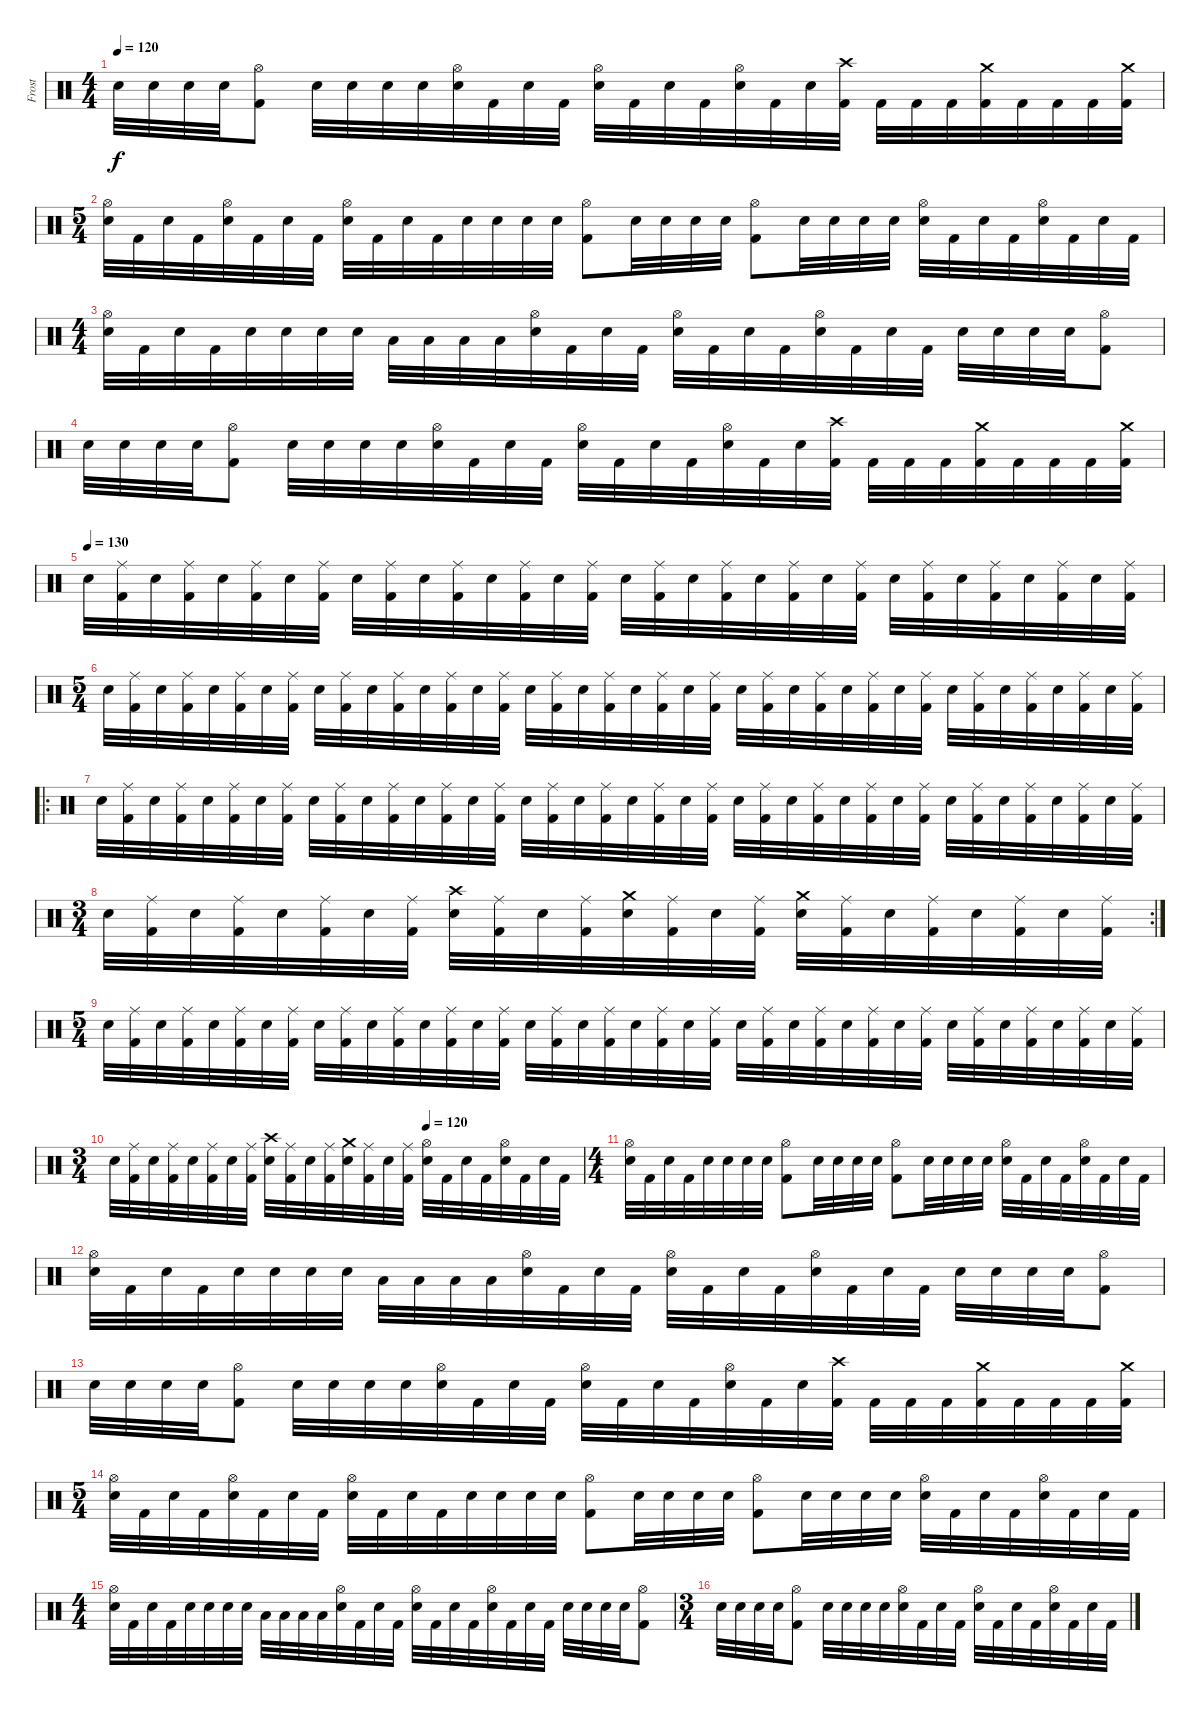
\track ("Frost" "Frost") {instrument percussion}
\staff {score}
\articulation defaults
\ts (4 4)
\tempo 120
\clef neutral
\ks c "Snare (hit) 2".32{dy f} "Snare (hit) 2".32 "Snare (hit) 2".32 "Snare (hit) 2".32
("Hi-Hat (open)" "Kick (hit) 2").8 "Snare (hit) 2".32 "Snare (hit) 2".32 "Snare (hit) 2".32 "Snare (hit) 2".32 ("Hi-Hat (open)" "Snare (hit) 2").32 "Kick (hit) 2".32 "Snare (hit) 2".32 "Kick (hit) 2".32 ("Hi-Hat (open)" "Snare (hit) 2").32 "Kick (hit) 2".32 "Snare (hit) 2".32 "Kick (hit) 2".32 ("Hi-Hat (open)" "Snare (hit) 2").32 "Kick (hit) 2".32 "Snare (hit) 2".32 ("Crash high (hit)" "Kick (hit) 2").32 "Kick (hit) 2".32 "Kick (hit) 2".32 "Kick (hit) 2".32 ("Crash medium (hit)" "Kick (hit) 2").32 "Kick (hit) 2".32 "Kick (hit) 2".32 "Kick (hit) 2".32 ("Crash medium (hit)" "Kick (hit) 2").32 |
\ts (5 4)
("Hi-Hat (open)" "Snare (hit) 2").32 "Kick (hit) 2".32 "Snare (hit) 2".32 "Kick (hit) 2".32 ("Hi-Hat (open)" "Snare (hit) 2").32 "Kick (hit) 2".32 "Snare (hit) 2".32 "Kick (hit) 2".32 ("Hi-Hat (open)" "Snare (hit) 2").32 "Kick (hit) 2".32 "Snare (hit) 2".32 "Kick (hit) 2".32 "Snare (hit) 2".32 "Snare (hit) 2".32 "Snare (hit) 2".32 "Snare (hit) 2".32 ("Hi-Hat (open)" "Kick (hit) 2").8 "Snare (hit) 2".32 "Snare (hit) 2".32 "Snare (hit) 2".32 "Snare (hit) 2".32 ("Hi-Hat (open)" "Kick (hit) 2").8 "Snare (hit) 2".32 "Snare (hit) 2".32 "Snare (hit) 2".32 "Snare (hit) 2".32 ("Hi-Hat (open)" "Snare (hit) 2").32 "Kick (hit) 2".32 "Snare (hit) 2".32 "Kick (hit) 2".32 ("Hi-Hat (open)" "Snare (hit) 2").32 "Kick (hit) 2".32 "Snare (hit) 2".32 "Kick (hit) 2".32 |
\ts (4 4)
("Hi-Hat (open)" "Snare (hit) 2").32 "Kick (hit) 2".32 "Snare (hit) 2".32 "Kick (hit) 2".32 "Snare (hit) 2".32 "Snare (hit) 2".32 "Snare (hit) 2".32 "Snare (hit) 2".32 "Low Tom (hit)".32 "Low Tom (hit)".32 "Low Tom (hit)".32 "Low Tom (hit)".32 ("Hi-Hat (open)" "Snare (hit) 2").32 "Kick (hit) 2".32 "Snare (hit) 2".32 "Kick (hit) 2".32 ("Hi-Hat (open)" "Snare (hit) 2").32 "Kick (hit) 2".32 "Snare (hit) 2".32 "Kick (hit) 2".32 ("Hi-Hat (open)" "Snare (hit) 2").32 "Kick (hit) 2".32 "Snare (hit) 2".32 "Kick (hit) 2".32 "Snare (hit) 2".32 "Snare (hit) 2".32 "Snare (hit) 2".32 "Snare (hit) 2".32 ("Hi-Hat (open)" "Kick (hit) 2").8 |
"Snare (hit) 2".32 "Snare (hit) 2".32 "Snare (hit) 2".32 "Snare (hit) 2".32 ("Hi-Hat (open)" "Kick (hit) 2").8 "Snare (hit) 2".32 "Snare (hit) 2".32 "Snare (hit) 2".32 "Snare (hit) 2".32 ("Hi-Hat (open)" "Snare (hit) 2").32 "Kick (hit) 2".32 "Snare (hit) 2".32 "Kick (hit) 2".32 ("Hi-Hat (open)" "Snare (hit) 2").32 "Kick (hit) 2".32 "Snare (hit) 2".32 "Kick (hit) 2".32 ("Hi-Hat (open)" "Snare (hit) 2").32 "Kick (hit) 2".32 "Snare (hit) 2".32 ("Crash high (hit)" "Kick (hit) 2").32 "Kick (hit) 2".32 "Kick (hit) 2".32 "Kick (hit) 2".32 ("Crash medium (hit)" "Kick (hit) 2").32 "Kick (hit) 2".32 "Kick (hit) 2".32 "Kick (hit) 2".32 ("Crash medium (hit)" "Kick (hit) 2").32 |
\tempo (130)
"Snare (hit) 2".32 ("Ride (middle)" "Kick (hit) 2").32 "Snare (hit) 2".32 ("Ride (middle)" "Kick (hit) 2").32 "Snare (hit) 2".32 ("Ride (middle)" "Kick (hit) 2").32 "Snare (hit) 2".32 ("Ride (middle)" "Kick (hit) 2").32 "Snare (hit) 2".32 ("Ride (middle)" "Kick (hit) 2").32 "Snare (hit) 2".32 ("Ride (middle)" "Kick (hit) 2").32 "Snare (hit) 2".32 ("Ride (middle)" "Kick (hit) 2").32 "Snare (hit) 2".32 ("Ride (middle)" "Kick (hit) 2").32 "Snare (hit) 2".32 ("Ride (middle)" "Kick (hit) 2").32 "Snare (hit) 2".32 ("Ride (middle)" "Kick (hit) 2").32 "Snare (hit) 2".32 ("Ride (middle)" "Kick (hit) 2").32 "Snare (hit) 2".32 ("Ride (middle)" "Kick (hit) 2").32 "Snare (hit) 2".32 ("Ride (middle)" "Kick (hit) 2").32 "Snare (hit) 2".32 ("Ride (middle)" "Kick (hit) 2").32 "Snare (hit) 2".32 ("Ride (middle)" "Kick (hit) 2").32 "Snare (hit) 2".32 ("Ride (middle)" "Kick (hit) 2").32 |
\ts (5 4)
"Snare (hit) 2".32 ("Ride (middle)" "Kick (hit) 2").32 "Snare (hit) 2".32 ("Ride (middle)" "Kick (hit) 2").32 "Snare (hit) 2".32 ("Ride (middle)" "Kick (hit) 2").32 "Snare (hit) 2".32 ("Ride (middle)" "Kick (hit) 2").32 "Snare (hit) 2".32 ("Ride (middle)" "Kick (hit) 2").32 "Snare (hit) 2".32 ("Ride (middle)" "Kick (hit) 2").32 "Snare (hit) 2".32 ("Ride (middle)" "Kick (hit) 2").32 "Snare (hit) 2".32 ("Ride (middle)" "Kick (hit) 2").32 "Snare (hit) 2".32 ("Ride (middle)" "Kick (hit) 2").32 "Snare (hit) 2".32 ("Ride (middle)" "Kick (hit) 2").32 "Snare (hit) 2".32 ("Ride (middle)" "Kick (hit) 2").32 "Snare (hit) 2".32 ("Ride (middle)" "Kick (hit) 2").32 "Snare (hit) 2".32 ("Ride (middle)" "Kick (hit) 2").32 "Snare (hit) 2".32 ("Ride (middle)" "Kick (hit) 2").32 "Snare (hit) 2".32 ("Ride (middle)" "Kick (hit) 2").32 "Snare (hit) 2".32 ("Ride (middle)" "Kick (hit) 2").32 "Snare (hit) 2".32 ("Ride (middle)" "Kick (hit) 2").32 "Snare (hit) 2".32 ("Ride (middle)" "Kick (hit) 2").32 "Snare (hit) 2".32 ("Ride (middle)" "Kick (hit) 2").32 "Snare (hit) 2".32 ("Ride (middle)" "Kick (hit) 2").32 |
\ro "Snare (hit) 2".32
("Ride (middle)" "Kick (hit) 2").32 "Snare (hit) 2".32 ("Ride (middle)" "Kick (hit) 2").32 "Snare (hit) 2".32 ("Ride (middle)" "Kick (hit) 2").32 "Snare (hit) 2".32 ("Ride (middle)" "Kick (hit) 2").32 "Snare (hit) 2".32 ("Ride (middle)" "Kick (hit) 2").32 "Snare (hit) 2".32 ("Ride (middle)" "Kick (hit) 2").32 "Snare (hit) 2".32 ("Ride (middle)" "Kick (hit) 2").32 "Snare (hit) 2".32 ("Ride (middle)" "Kick (hit) 2").32 "Snare (hit) 2".32 ("Ride (middle)" "Kick (hit) 2").32 "Snare (hit) 2".32 ("Ride (middle)" "Kick (hit) 2").32 "Snare (hit) 2".32 ("Ride (middle)" "Kick (hit) 2").32 "Snare (hit) 2".32 ("Ride (middle)" "Kick (hit) 2").32 "Snare (hit) 2".32 ("Ride (middle)" "Kick (hit) 2").32 "Snare (hit) 2".32 ("Ride (middle)" "Kick (hit) 2").32 "Snare (hit) 2".32 ("Ride (middle)" "Kick (hit) 2").32 "Snare (hit) 2".32 ("Ride (middle)" "Kick (hit) 2").32 "Snare (hit) 2".32 ("Ride (middle)" "Kick (hit) 2").32 "Snare (hit) 2".32 ("Ride (middle)" "Kick (hit) 2").32 "Snare (hit) 2".32 ("Ride (middle)" "Kick (hit) 2").32 "Snare (hit) 2".32 ("Ride (middle)" "Kick (hit) 2").32 |
\rc 2
\ts (3 4)
"Snare (hit) 2".32 ("Ride (middle)" "Kick (hit) 2").32 "Snare (hit) 2".32 ("Ride (middle)" "Kick (hit) 2").32 "Snare (hit) 2".32 ("Ride (middle)" "Kick (hit) 2").32 "Snare (hit) 2".32 ("Ride (middle)" "Kick (hit) 2").32 ("Crash high (hit)" "Snare (hit) 2").32 ("Ride (middle)" "Kick (hit) 2").32 "Snare (hit) 2".32 ("Ride (middle)" "Kick (hit) 2").32 ("Crash medium (hit)" "Snare (hit) 2").32 ("Ride (middle)" "Kick (hit) 2").32 "Snare (hit) 2".32 ("Ride (middle)" "Kick (hit) 2").32 ("Crash medium (hit)" "Snare (hit) 2").32 ("Ride (middle)" "Kick (hit) 2").32 "Snare (hit) 2".32 ("Ride (middle)" "Kick (hit) 2").32 "Snare (hit) 2".32 ("Ride (middle)" "Kick (hit) 2").32 "Snare (hit) 2".32 ("Ride (middle)" "Kick (hit) 2").32 |
\ts (5 4)
"Snare (hit) 2".32 ("Ride (middle)" "Kick (hit) 2").32 "Snare (hit) 2".32 ("Ride (middle)" "Kick (hit) 2").32 "Snare (hit) 2".32 ("Ride (middle)" "Kick (hit) 2").32 "Snare (hit) 2".32 ("Ride (middle)" "Kick (hit) 2").32 "Snare (hit) 2".32 ("Ride (middle)" "Kick (hit) 2").32 "Snare (hit) 2".32 ("Ride (middle)" "Kick (hit) 2").32 "Snare (hit) 2".32 ("Ride (middle)" "Kick (hit) 2").32 "Snare (hit) 2".32 ("Ride (middle)" "Kick (hit) 2").32 "Snare (hit) 2".32 ("Ride (middle)" "Kick (hit) 2").32 "Snare (hit) 2".32 ("Ride (middle)" "Kick (hit) 2").32 "Snare (hit) 2".32 ("Ride (middle)" "Kick (hit) 2").32 "Snare (hit) 2".32 ("Ride (middle)" "Kick (hit) 2").32 "Snare (hit) 2".32 ("Ride (middle)" "Kick (hit) 2").32 "Snare (hit) 2".32 ("Ride (middle)" "Kick (hit) 2").32 "Snare (hit) 2".32 ("Ride (middle)" "Kick (hit) 2").32 "Snare (hit) 2".32 ("Ride (middle)" "Kick (hit) 2").32 "Snare (hit) 2".32 ("Ride (middle)" "Kick (hit) 2").32 "Snare (hit) 2".32 ("Ride (middle)" "Kick (hit) 2").32 "Snare (hit) 2".32 ("Ride (middle)" "Kick (hit) 2").32 "Snare (hit) 2".32 ("Ride (middle)" "Kick (hit) 2").32 |
\ts (3 4)
\tempo (120 0.6666666666666666)
"Snare (hit) 2".32 ("Ride (middle)" "Kick (hit) 2").32 "Snare (hit) 2".32 ("Ride (middle)" "Kick (hit) 2").32 "Snare (hit) 2".32 ("Ride (middle)" "Kick (hit) 2").32 "Snare (hit) 2".32 ("Ride (middle)" "Kick (hit) 2").32 ("Crash high (hit)" "Snare (hit) 2").32 ("Ride (middle)" "Kick (hit) 2").32 "Snare (hit) 2".32 ("Ride (middle)" "Kick (hit) 2").32 ("Crash medium (hit)" "Snare (hit) 2").32 ("Ride (middle)" "Kick (hit) 2").32 "Snare (hit) 2".32 ("Ride (middle)" "Kick (hit) 2").32 ("Hi-Hat (open)" "Snare (hit) 2").32 "Kick (hit) 2".32 "Snare (hit) 2".32 "Kick (hit) 2".32 ("Hi-Hat (open)" "Snare (hit) 2").32 "Kick (hit) 2".32 "Snare (hit) 2".32 "Kick (hit) 2".32 |
\ts (4 4)
("Hi-Hat (open)" "Snare (hit) 2").32 "Kick (hit) 2".32 "Snare (hit) 2".32 "Kick (hit) 2".32 "Snare (hit) 2".32 "Snare (hit) 2".32 "Snare (hit) 2".32 "Snare (hit) 2".32 ("Hi-Hat (open)" "Kick (hit) 2").8 "Snare (hit) 2".32 "Snare (hit) 2".32 "Snare (hit) 2".32 "Snare (hit) 2".32 ("Hi-Hat (open)" "Kick (hit) 2").8 "Snare (hit) 2".32 "Snare (hit) 2".32 "Snare (hit) 2".32 "Snare (hit) 2".32 ("Hi-Hat (open)" "Snare (hit) 2").32 "Kick (hit) 2".32 "Snare (hit) 2".32 "Kick (hit) 2".32 ("Hi-Hat (open)" "Snare (hit) 2").32 "Kick (hit) 2".32 "Snare (hit) 2".32 "Kick (hit) 2".32 |
("Hi-Hat (open)" "Snare (hit) 2").32 "Kick (hit) 2".32 "Snare (hit) 2".32 "Kick (hit) 2".32 "Snare (hit) 2".32 "Snare (hit) 2".32 "Snare (hit) 2".32 "Snare (hit) 2".32 "Low Tom (hit)".32 "Low Tom (hit)".32 "Low Tom (hit)".32 "Low Tom (hit)".32 ("Hi-Hat (open)" "Snare (hit) 2").32 "Kick (hit) 2".32 "Snare (hit) 2".32 "Kick (hit) 2".32 ("Hi-Hat (open)" "Snare (hit) 2").32 "Kick (hit) 2".32 "Snare (hit) 2".32 "Kick (hit) 2".32 ("Hi-Hat (open)" "Snare (hit) 2").32 "Kick (hit) 2".32 "Snare (hit) 2".32 "Kick (hit) 2".32 "Snare (hit) 2".32 "Snare (hit) 2".32 "Snare (hit) 2".32 "Snare (hit) 2".32 ("Hi-Hat (open)" "Kick (hit) 2").8 |
"Snare (hit) 2".32 "Snare (hit) 2".32 "Snare (hit) 2".32 "Snare (hit) 2".32 ("Hi-Hat (open)" "Kick (hit) 2").8 "Snare (hit) 2".32 "Snare (hit) 2".32 "Snare (hit) 2".32 "Snare (hit) 2".32 ("Hi-Hat (open)" "Snare (hit) 2").32 "Kick (hit) 2".32 "Snare (hit) 2".32 "Kick (hit) 2".32 ("Hi-Hat (open)" "Snare (hit) 2").32 "Kick (hit) 2".32 "Snare (hit) 2".32 "Kick (hit) 2".32 ("Hi-Hat (open)" "Snare (hit) 2").32 "Kick (hit) 2".32 "Snare (hit) 2".32 ("Crash high (hit)" "Kick (hit) 2").32 "Kick (hit) 2".32 "Kick (hit) 2".32 "Kick (hit) 2".32 ("Crash medium (hit)" "Kick (hit) 2").32 "Kick (hit) 2".32 "Kick (hit) 2".32 "Kick (hit) 2".32 ("Crash medium (hit)" "Kick (hit) 2").32 |
\ts (5 4)
("Hi-Hat (open)" "Snare (hit) 2").32 "Kick (hit) 2".32 "Snare (hit) 2".32 "Kick (hit) 2".32 ("Hi-Hat (open)" "Snare (hit) 2").32 "Kick (hit) 2".32 "Snare (hit) 2".32 "Kick (hit) 2".32 ("Hi-Hat (open)" "Snare (hit) 2").32 "Kick (hit) 2".32 "Snare (hit) 2".32 "Kick (hit) 2".32 "Snare (hit) 2".32 "Snare (hit) 2".32 "Snare (hit) 2".32 "Snare (hit) 2".32 ("Hi-Hat (open)" "Kick (hit) 2").8 "Snare (hit) 2".32 "Snare (hit) 2".32 "Snare (hit) 2".32 "Snare (hit) 2".32 ("Hi-Hat (open)" "Kick (hit) 2").8 "Snare (hit) 2".32 "Snare (hit) 2".32 "Snare (hit) 2".32 "Snare (hit) 2".32 ("Hi-Hat (open)" "Snare (hit) 2").32 "Kick (hit) 2".32 "Snare (hit) 2".32 "Kick (hit) 2".32 ("Hi-Hat (open)" "Snare (hit) 2").32 "Kick (hit) 2".32 "Snare (hit) 2".32 "Kick (hit) 2".32 |
\ts (4 4)
("Hi-Hat (open)" "Snare (hit) 2").32 "Kick (hit) 2".32 "Snare (hit) 2".32 "Kick (hit) 2".32 "Snare (hit) 2".32 "Snare (hit) 2".32 "Snare (hit) 2".32 "Snare (hit) 2".32 "Low Tom (hit)".32 "Low Tom (hit)".32 "Low Tom (hit)".32 "Low Tom (hit)".32 ("Hi-Hat (open)" "Snare (hit) 2").32 "Kick (hit) 2".32 "Snare (hit) 2".32 "Kick (hit) 2".32 ("Hi-Hat (open)" "Snare (hit) 2").32 "Kick (hit) 2".32 "Snare (hit) 2".32 "Kick (hit) 2".32 ("Hi-Hat (open)" "Snare (hit) 2").32 "Kick (hit) 2".32 "Snare (hit) 2".32 "Kick (hit) 2".32 "Snare (hit) 2".32 "Snare (hit) 2".32 "Snare (hit) 2".32 "Snare (hit) 2".32 ("Hi-Hat (open)" "Kick (hit) 2").8 |
\ts (3 4)
"Snare (hit) 2".32 "Snare (hit) 2".32 "Snare (hit) 2".32 "Snare (hit) 2".32 ("Hi-Hat (open)" "Kick (hit) 2").8 "Snare (hit) 2".32 "Snare (hit) 2".32 "Snare (hit) 2".32 "Snare (hit) 2".32 ("Hi-Hat (open)" "Snare (hit) 2").32 "Kick (hit) 2".32 "Snare (hit) 2".32 "Kick (hit) 2".32 ("Hi-Hat (open)" "Snare (hit) 2").32 "Kick (hit) 2".32 "Snare (hit) 2".32 "Kick (hit) 2".32 ("Hi-Hat (open)" "Snare (hit) 2").32 "Kick (hit) 2".32 "Snare (hit) 2".32 "Kick (hit) 2".32
